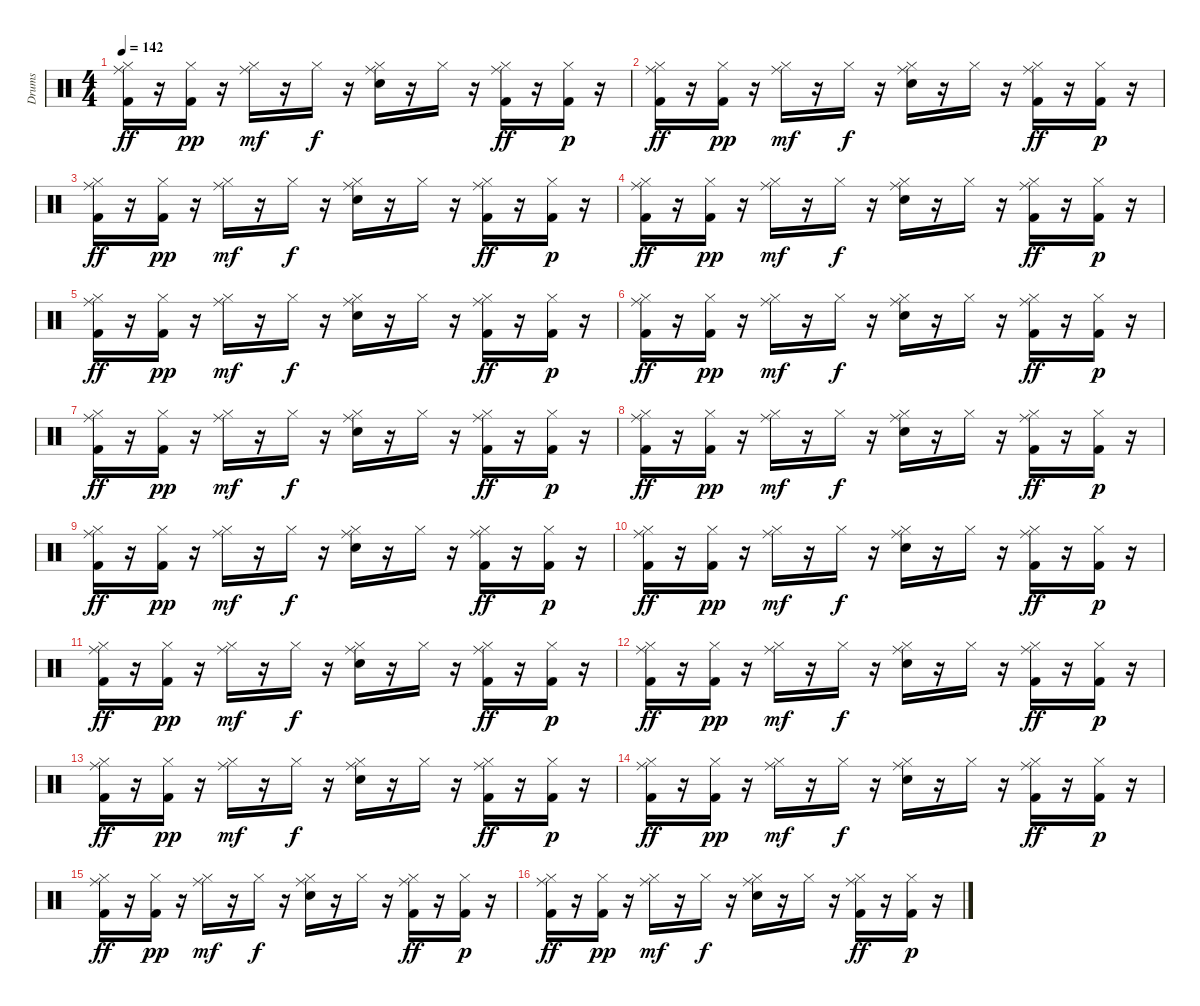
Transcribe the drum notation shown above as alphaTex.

\track ("Drums" "Drums") {instrument percussion}
\staff {score}
\articulation defaults
\ts (4 4)
\tempo 142
\clef neutral
\ks c
("Ride (middle)" "Hi-Hat (closed)" "Kick (hit) 2").16{dy ff} r.16 ("Hi-Hat (closed)" "Kick (hit) 2").16{dy pp} r.16 ("Ride (middle)" "Hi-Hat (closed)").16{dy mf} r.16 "Hi-Hat (closed)".16{dy f} r.16 ("Ride (middle)" "Hi-Hat (closed)" "Snare (hit) 2").16 r.16 "Hi-Hat (closed)".16 r.16 ("Ride (middle)" "Hi-Hat (closed)" "Kick (hit) 2").16{dy ff} r.16 ("Hi-Hat (closed)" "Kick (hit) 2").16{dy p} r.16 |
("Ride (middle)" "Hi-Hat (closed)" "Kick (hit) 2").16{dy ff} r.16 ("Hi-Hat (closed)" "Kick (hit) 2").16{dy pp} r.16 ("Ride (middle)" "Hi-Hat (closed)").16{dy mf} r.16 "Hi-Hat (closed)".16{dy f} r.16 ("Ride (middle)" "Hi-Hat (closed)" "Snare (hit) 2").16 r.16 "Hi-Hat (closed)".16 r.16 ("Ride (middle)" "Hi-Hat (closed)" "Kick (hit) 2").16{dy ff} r.16 ("Hi-Hat (closed)" "Kick (hit) 2").16{dy p} r.16 |
("Ride (middle)" "Hi-Hat (closed)" "Kick (hit) 2").16{dy ff} r.16 ("Hi-Hat (closed)" "Kick (hit) 2").16{dy pp} r.16 ("Ride (middle)" "Hi-Hat (closed)").16{dy mf} r.16 "Hi-Hat (closed)".16{dy f} r.16 ("Ride (middle)" "Hi-Hat (closed)" "Snare (hit) 2").16 r.16 "Hi-Hat (closed)".16 r.16 ("Ride (middle)" "Hi-Hat (closed)" "Kick (hit) 2").16{dy ff} r.16 ("Hi-Hat (closed)" "Kick (hit) 2").16{dy p} r.16 |
("Ride (middle)" "Hi-Hat (closed)" "Kick (hit) 2").16{dy ff} r.16 ("Hi-Hat (closed)" "Kick (hit) 2").16{dy pp} r.16 ("Ride (middle)" "Hi-Hat (closed)").16{dy mf} r.16 "Hi-Hat (closed)".16{dy f} r.16 ("Ride (middle)" "Hi-Hat (closed)" "Snare (hit) 2").16 r.16 "Hi-Hat (closed)".16 r.16 ("Ride (middle)" "Hi-Hat (closed)" "Kick (hit) 2").16{dy ff} r.16 ("Hi-Hat (closed)" "Kick (hit) 2").16{dy p} r.16 |
("Ride (middle)" "Hi-Hat (closed)" "Kick (hit) 2").16{dy ff} r.16 ("Hi-Hat (closed)" "Kick (hit) 2").16{dy pp} r.16 ("Ride (middle)" "Hi-Hat (closed)").16{dy mf} r.16 "Hi-Hat (closed)".16{dy f} r.16 ("Ride (middle)" "Hi-Hat (closed)" "Snare (hit) 2").16 r.16 "Hi-Hat (closed)".16 r.16 ("Ride (middle)" "Hi-Hat (closed)" "Kick (hit) 2").16{dy ff} r.16 ("Hi-Hat (closed)" "Kick (hit) 2").16{dy p} r.16 |
("Ride (middle)" "Hi-Hat (closed)" "Kick (hit) 2").16{dy ff} r.16 ("Hi-Hat (closed)" "Kick (hit) 2").16{dy pp} r.16 ("Ride (middle)" "Hi-Hat (closed)").16{dy mf} r.16 "Hi-Hat (closed)".16{dy f} r.16 ("Ride (middle)" "Hi-Hat (closed)" "Snare (hit) 2").16 r.16 "Hi-Hat (closed)".16 r.16 ("Ride (middle)" "Hi-Hat (closed)" "Kick (hit) 2").16{dy ff} r.16 ("Hi-Hat (closed)" "Kick (hit) 2").16{dy p} r.16 |
("Ride (middle)" "Hi-Hat (closed)" "Kick (hit) 2").16{dy ff} r.16 ("Hi-Hat (closed)" "Kick (hit) 2").16{dy pp} r.16 ("Ride (middle)" "Hi-Hat (closed)").16{dy mf} r.16 "Hi-Hat (closed)".16{dy f} r.16 ("Ride (middle)" "Hi-Hat (closed)" "Snare (hit) 2").16 r.16 "Hi-Hat (closed)".16 r.16 ("Ride (middle)" "Hi-Hat (closed)" "Kick (hit) 2").16{dy ff} r.16 ("Hi-Hat (closed)" "Kick (hit) 2").16{dy p} r.16 |
("Ride (middle)" "Hi-Hat (closed)" "Kick (hit) 2").16{dy ff} r.16 ("Hi-Hat (closed)" "Kick (hit) 2").16{dy pp} r.16 ("Ride (middle)" "Hi-Hat (closed)").16{dy mf} r.16 "Hi-Hat (closed)".16{dy f} r.16 ("Ride (middle)" "Hi-Hat (closed)" "Snare (hit) 2").16 r.16 "Hi-Hat (closed)".16 r.16 ("Ride (middle)" "Hi-Hat (closed)" "Kick (hit) 2").16{dy ff} r.16 ("Hi-Hat (closed)" "Kick (hit) 2").16{dy p} r.16 |
("Ride (middle)" "Hi-Hat (closed)" "Kick (hit) 2").16{dy ff} r.16 ("Hi-Hat (closed)" "Kick (hit) 2").16{dy pp} r.16 ("Ride (middle)" "Hi-Hat (closed)").16{dy mf} r.16 "Hi-Hat (closed)".16{dy f} r.16 ("Ride (middle)" "Hi-Hat (closed)" "Snare (hit) 2").16 r.16 "Hi-Hat (closed)".16 r.16 ("Ride (middle)" "Hi-Hat (closed)" "Kick (hit) 2").16{dy ff} r.16 ("Hi-Hat (closed)" "Kick (hit) 2").16{dy p} r.16 |
("Ride (middle)" "Hi-Hat (closed)" "Kick (hit) 2").16{dy ff} r.16 ("Hi-Hat (closed)" "Kick (hit) 2").16{dy pp} r.16 ("Ride (middle)" "Hi-Hat (closed)").16{dy mf} r.16 "Hi-Hat (closed)".16{dy f} r.16 ("Ride (middle)" "Hi-Hat (closed)" "Snare (hit) 2").16 r.16 "Hi-Hat (closed)".16 r.16 ("Ride (middle)" "Hi-Hat (closed)" "Kick (hit) 2").16{dy ff} r.16 ("Hi-Hat (closed)" "Kick (hit) 2").16{dy p} r.16 |
("Ride (middle)" "Hi-Hat (closed)" "Kick (hit) 2").16{dy ff} r.16 ("Hi-Hat (closed)" "Kick (hit) 2").16{dy pp} r.16 ("Ride (middle)" "Hi-Hat (closed)").16{dy mf} r.16 "Hi-Hat (closed)".16{dy f} r.16 ("Ride (middle)" "Hi-Hat (closed)" "Snare (hit) 2").16 r.16 "Hi-Hat (closed)".16 r.16 ("Ride (middle)" "Hi-Hat (closed)" "Kick (hit) 2").16{dy ff} r.16 ("Hi-Hat (closed)" "Kick (hit) 2").16{dy p} r.16 |
("Ride (middle)" "Hi-Hat (closed)" "Kick (hit) 2").16{dy ff} r.16 ("Hi-Hat (closed)" "Kick (hit) 2").16{dy pp} r.16 ("Ride (middle)" "Hi-Hat (closed)").16{dy mf} r.16 "Hi-Hat (closed)".16{dy f} r.16 ("Ride (middle)" "Hi-Hat (closed)" "Snare (hit) 2").16 r.16 "Hi-Hat (closed)".16 r.16 ("Ride (middle)" "Hi-Hat (closed)" "Kick (hit) 2").16{dy ff} r.16 ("Hi-Hat (closed)" "Kick (hit) 2").16{dy p} r.16 |
("Ride (middle)" "Hi-Hat (closed)" "Kick (hit) 2").16{dy ff} r.16 ("Hi-Hat (closed)" "Kick (hit) 2").16{dy pp} r.16 ("Ride (middle)" "Hi-Hat (closed)").16{dy mf} r.16 "Hi-Hat (closed)".16{dy f} r.16 ("Ride (middle)" "Hi-Hat (closed)" "Snare (hit) 2").16 r.16 "Hi-Hat (closed)".16 r.16 ("Ride (middle)" "Hi-Hat (closed)" "Kick (hit) 2").16{dy ff} r.16 ("Hi-Hat (closed)" "Kick (hit) 2").16{dy p} r.16 |
("Ride (middle)" "Hi-Hat (closed)" "Kick (hit) 2").16{dy ff} r.16 ("Hi-Hat (closed)" "Kick (hit) 2").16{dy pp} r.16 ("Ride (middle)" "Hi-Hat (closed)").16{dy mf} r.16 "Hi-Hat (closed)".16{dy f} r.16 ("Ride (middle)" "Hi-Hat (closed)" "Snare (hit) 2").16 r.16 "Hi-Hat (closed)".16 r.16 ("Ride (middle)" "Hi-Hat (closed)" "Kick (hit) 2").16{dy ff} r.16 ("Hi-Hat (closed)" "Kick (hit) 2").16{dy p} r.16 |
("Ride (middle)" "Hi-Hat (closed)" "Kick (hit) 2").16{dy ff} r.16 ("Hi-Hat (closed)" "Kick (hit) 2").16{dy pp} r.16 ("Ride (middle)" "Hi-Hat (closed)").16{dy mf} r.16 "Hi-Hat (closed)".16{dy f} r.16 ("Ride (middle)" "Hi-Hat (closed)" "Snare (hit) 2").16 r.16 "Hi-Hat (closed)".16 r.16 ("Ride (middle)" "Hi-Hat (closed)" "Kick (hit) 2").16{dy ff} r.16 ("Hi-Hat (closed)" "Kick (hit) 2").16{dy p} r.16 |
("Ride (middle)" "Hi-Hat (closed)" "Kick (hit) 2").16{dy ff} r.16 ("Hi-Hat (closed)" "Kick (hit) 2").16{dy pp} r.16 ("Ride (middle)" "Hi-Hat (closed)").16{dy mf} r.16 "Hi-Hat (closed)".16{dy f} r.16 ("Ride (middle)" "Hi-Hat (closed)" "Snare (hit) 2").16 r.16 "Hi-Hat (closed)".16 r.16 ("Ride (middle)" "Hi-Hat (closed)" "Kick (hit) 2").16{dy ff} r.16 ("Hi-Hat (closed)" "Kick (hit) 2").16{dy p} r.16
